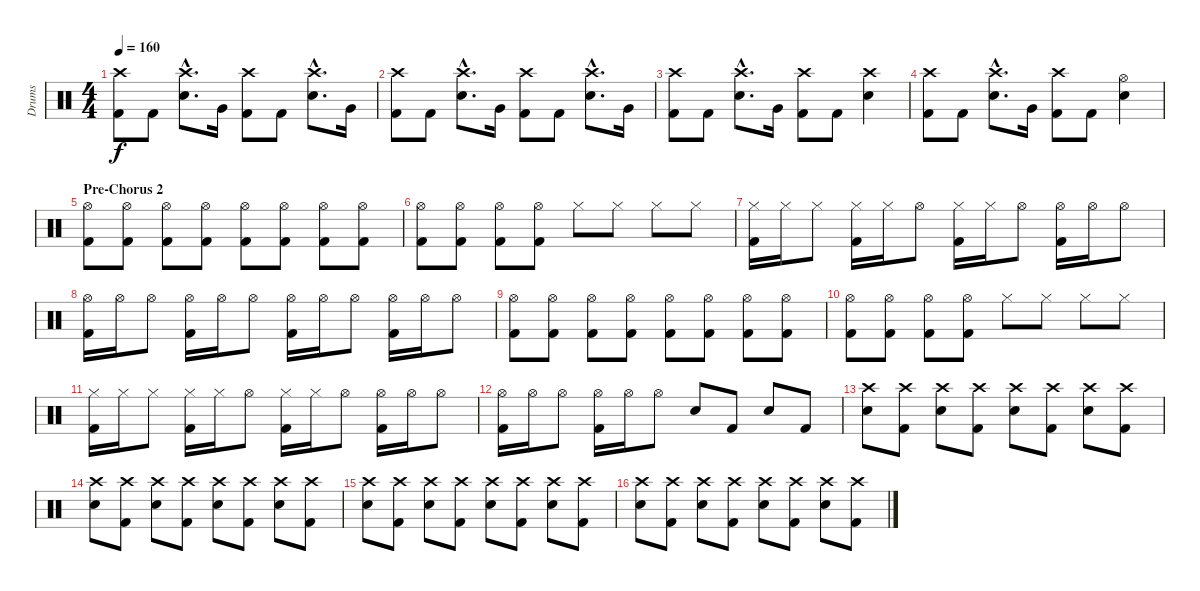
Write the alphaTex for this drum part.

\track ("Drums" "Drums") {instrument percussion}
\staff {score}
\articulation defaults
\ts (4 4)
\tempo 160
\clef neutral
\ks c
("Crash high (hit)" "Kick (hit) 2").8{dy f} "Kick (hit) 2".8 ("Crash high (hit)"{hac} "Electric Snare (hit)"{hac}).8{d} "Very Low Tom (hit)".16 ("Crash high (hit)" "Kick (hit) 2").8 "Kick (hit) 2".8 ("Crash high (hit)"{hac} "Electric Snare (hit)"{hac}).8{d} "Very Low Tom (hit)".16 |
("Crash high (hit)" "Kick (hit) 2").8 "Kick (hit) 2".8 ("Crash high (hit)"{hac} "Electric Snare (hit)"{hac}).8{d} "Very Low Tom (hit)".16 ("Crash high (hit)" "Kick (hit) 2").8 "Kick (hit) 2".8 ("Crash high (hit)"{hac} "Electric Snare (hit)"{hac}).8{d} "Very Low Tom (hit)".16 |
("Crash high (hit)" "Kick (hit) 2").8 "Kick (hit) 2".8 ("Crash high (hit)"{hac} "Electric Snare (hit)"{hac}).8{d} "Very Low Tom (hit)".16 ("Crash high (hit)" "Kick (hit) 2").8 "Kick (hit) 2".8 ("Crash high (hit)" "Electric Snare (hit)").4 |
("Crash high (hit)" "Kick (hit) 2").8 "Kick (hit) 2".8 ("Crash high (hit)"{hac} "Electric Snare (hit)"{hac}).8{d} "Very Low Tom (hit)".16 ("Crash high (hit)" "Kick (hit) 2").8 "Kick (hit) 2".8 ("Hi-Hat (open)" "Electric Snare (hit)").4 |
\section ("" "Pre-Chorus 2")
("Hi-Hat (open)" "Kick (hit) 2").8 ("Hi-Hat (open)" "Kick (hit) 2").8 ("Hi-Hat (open)" "Kick (hit) 2").8 ("Hi-Hat (open)" "Kick (hit) 2").8 ("Hi-Hat (open)" "Kick (hit) 2").8 ("Hi-Hat (open)" "Kick (hit) 2").8 ("Hi-Hat (open)" "Kick (hit) 2").8 ("Hi-Hat (open)" "Kick (hit) 2").8 |
("Hi-Hat (open)" "Kick (hit) 2").8 ("Hi-Hat (open)" "Kick (hit) 2").8 ("Hi-Hat (open)" "Kick (hit) 2").8 ("Hi-Hat (open)" "Kick (hit) 2").8 "Hi-Hat (closed)".8 "Hi-Hat (closed)".8 "Hi-Hat (closed)".8 "Hi-Hat (closed)".8 |
("Hi-Hat (closed)" "Kick (hit) 2").16 "Hi-Hat (closed)".16 "Hi-Hat (closed)".8 ("Hi-Hat (closed)" "Kick (hit) 2").16 "Hi-Hat (closed)".16 "Hi-Hat (open)".8 ("Hi-Hat (closed)" "Kick (hit) 2").16 "Hi-Hat (closed)".16 "Hi-Hat (open)".8 ("Hi-Hat (open)" "Kick (hit) 2").16 "Hi-Hat (open)".16 "Hi-Hat (open)".8 |
("Hi-Hat (open)" "Kick (hit) 2").16 "Hi-Hat (open)".16 "Hi-Hat (open)".8 ("Hi-Hat (open)" "Kick (hit) 2").16 "Hi-Hat (open)".16 "Hi-Hat (open)".8 ("Hi-Hat (open)" "Kick (hit) 2").16 "Hi-Hat (open)".16 "Hi-Hat (open)".8 ("Hi-Hat (open)" "Kick (hit) 2").16 "Hi-Hat (open)".16 "Hi-Hat (open)".8 |
("Hi-Hat (open)" "Kick (hit) 2").8 ("Hi-Hat (open)" "Kick (hit) 2").8 ("Hi-Hat (open)" "Kick (hit) 2").8 ("Hi-Hat (open)" "Kick (hit) 2").8 ("Hi-Hat (open)" "Kick (hit) 2").8 ("Hi-Hat (open)" "Kick (hit) 2").8 ("Hi-Hat (open)" "Kick (hit) 2").8 ("Hi-Hat (open)" "Kick (hit) 2").8 |
("Hi-Hat (open)" "Kick (hit) 2").8 ("Hi-Hat (open)" "Kick (hit) 2").8 ("Hi-Hat (open)" "Kick (hit) 2").8 ("Hi-Hat (open)" "Kick (hit) 2").8 "Hi-Hat (closed)".8 "Hi-Hat (closed)".8 "Hi-Hat (closed)".8 "Hi-Hat (closed)".8 |
("Hi-Hat (closed)" "Kick (hit) 2").16 "Hi-Hat (closed)".16 "Hi-Hat (closed)".8 ("Hi-Hat (closed)" "Kick (hit) 2").16 "Hi-Hat (closed)".16 "Hi-Hat (open)".8 ("Hi-Hat (closed)" "Kick (hit) 2").16 "Hi-Hat (closed)".16 "Hi-Hat (open)".8 ("Hi-Hat (open)" "Kick (hit) 2").16 "Hi-Hat (open)".16 "Hi-Hat (open)".8 |
("Hi-Hat (open)" "Kick (hit) 2").16 "Hi-Hat (open)".16 "Hi-Hat (open)".8 ("Hi-Hat (open)" "Kick (hit) 2").16 "Hi-Hat (open)".16 "Hi-Hat (open)".8 "Electric Snare (hit)".8 "Kick (hit) 2".8 "Electric Snare (hit)".8 "Kick (hit) 2".8 |
("Crash high (hit)" "Electric Snare (hit)").8 ("Crash high (hit)" "Kick (hit) 2").8 ("Crash high (hit)" "Electric Snare (hit)").8 ("Crash high (hit)" "Kick (hit) 2").8 ("Crash high (hit)" "Electric Snare (hit)").8 ("Crash high (hit)" "Kick (hit) 2").8 ("Crash high (hit)" "Electric Snare (hit)").8 ("Crash high (hit)" "Kick (hit) 2").8 |
("Crash high (hit)" "Electric Snare (hit)").8 ("Crash high (hit)" "Kick (hit) 2").8 ("Crash high (hit)" "Electric Snare (hit)").8 ("Crash high (hit)" "Kick (hit) 2").8 ("Crash high (hit)" "Electric Snare (hit)").8 ("Crash high (hit)" "Kick (hit) 2").8 ("Crash high (hit)" "Electric Snare (hit)").8 ("Crash high (hit)" "Kick (hit) 2").8 |
("Crash high (hit)" "Electric Snare (hit)").8 ("Crash high (hit)" "Kick (hit) 2").8 ("Crash high (hit)" "Electric Snare (hit)").8 ("Crash high (hit)" "Kick (hit) 2").8 ("Crash high (hit)" "Electric Snare (hit)").8 ("Crash high (hit)" "Kick (hit) 2").8 ("Crash high (hit)" "Electric Snare (hit)").8 ("Crash high (hit)" "Kick (hit) 2").8 |
("Crash high (hit)" "Electric Snare (hit)").8 ("Crash high (hit)" "Kick (hit) 2").8 ("Crash high (hit)" "Electric Snare (hit)").8 ("Crash high (hit)" "Kick (hit) 2").8 ("Crash high (hit)" "Electric Snare (hit)").8 ("Crash high (hit)" "Kick (hit) 2").8 ("Crash high (hit)" "Electric Snare (hit)").8 ("Crash high (hit)" "Kick (hit) 2").8
